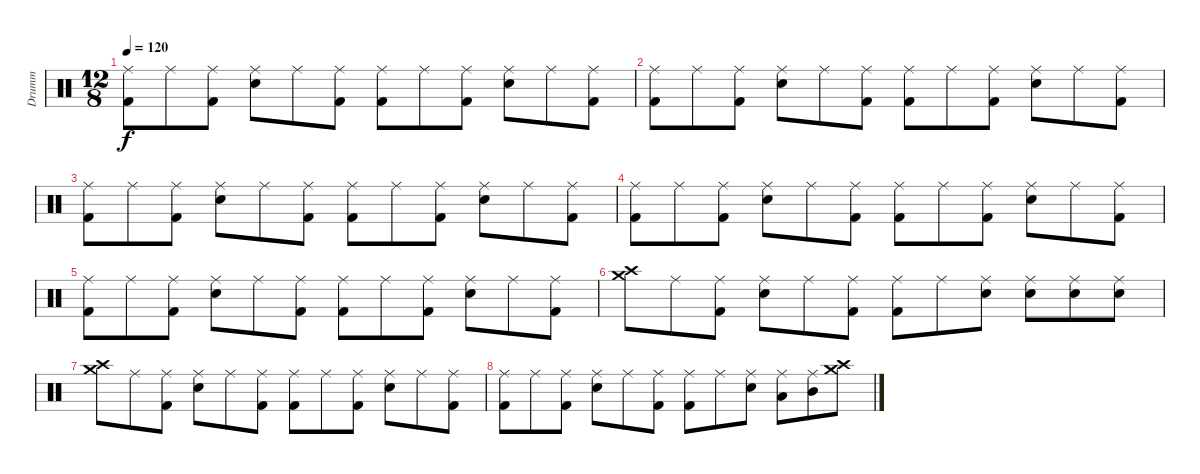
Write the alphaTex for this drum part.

\track ("Drumm" "Drumm") {instrument percussion}
\staff {score}
\articulation defaults
\ts (12 8)
\tempo 120
\clef neutral
\ks c
("Kick (hit) 2" "Ride (middle)").8{dy f} "Ride (middle)".8 ("Kick (hit) 2" "Ride (middle)").8 ("Electric Snare (hit)" "Ride (middle)").8 "Ride (middle)".8 ("Kick (hit) 2" "Ride (middle)").8 ("Kick (hit) 2" "Ride (middle)").8 "Ride (middle)".8 ("Kick (hit) 2" "Ride (middle)").8 ("Electric Snare (hit)" "Ride (middle)").8 "Ride (middle)".8 ("Kick (hit) 2" "Ride (middle)").8 |
("Kick (hit) 2" "Ride (middle)").8 "Ride (middle)".8 ("Kick (hit) 2" "Ride (middle)").8 ("Electric Snare (hit)" "Ride (middle)").8 "Ride (middle)".8 ("Kick (hit) 2" "Ride (middle)").8 ("Kick (hit) 2" "Ride (middle)").8 "Ride (middle)".8 ("Kick (hit) 2" "Ride (middle)").8 ("Electric Snare (hit)" "Ride (middle)").8 "Ride (middle)".8 ("Kick (hit) 2" "Ride (middle)").8 |
("Kick (hit) 2" "Ride (middle)").8 "Ride (middle)".8 ("Kick (hit) 2" "Ride (middle)").8 ("Electric Snare (hit)" "Ride (middle)").8 "Ride (middle)".8 ("Kick (hit) 2" "Ride (middle)").8 ("Kick (hit) 2" "Ride (middle)").8 "Ride (middle)".8 ("Kick (hit) 2" "Ride (middle)").8 ("Electric Snare (hit)" "Ride (middle)").8 "Ride (middle)".8 ("Kick (hit) 2" "Ride (middle)").8 |
("Kick (hit) 2" "Ride (middle)").8 "Ride (middle)".8 ("Kick (hit) 2" "Ride (middle)").8 ("Electric Snare (hit)" "Ride (middle)").8 "Ride (middle)".8 ("Kick (hit) 2" "Ride (middle)").8 ("Kick (hit) 2" "Ride (middle)").8 "Ride (middle)".8 ("Kick (hit) 2" "Ride (middle)").8 ("Electric Snare (hit)" "Ride (middle)").8 "Ride (middle)".8 ("Kick (hit) 2" "Ride (middle)").8 |
("Kick (hit) 2" "Ride (middle)").8 "Ride (middle)".8 ("Kick (hit) 2" "Ride (middle)").8 ("Electric Snare (hit)" "Ride (middle)").8 "Ride (middle)".8 ("Kick (hit) 2" "Ride (middle)").8 ("Kick (hit) 2" "Ride (middle)").8 "Ride (middle)".8 ("Kick (hit) 2" "Ride (middle)").8 ("Electric Snare (hit)" "Ride (middle)").8 "Ride (middle)".8 ("Kick (hit) 2" "Ride (middle)").8 |
("Crash high (hit)" "Crash medium (hit)").8 "Ride (middle)".8 ("Kick (hit) 2" "Ride (middle)").8 ("Electric Snare (hit)" "Ride (middle)").8 "Ride (middle)".8 ("Kick (hit) 2" "Ride (middle)").8 ("Kick (hit) 2" "Ride (middle)").8 "Ride (middle)".8 ("Electric Snare (hit)" "Ride (middle)").8 ("Electric Snare (hit)" "Ride (middle)").8 ("Electric Snare (hit)" "Ride (middle)").8 ("Electric Snare (hit)" "Ride (middle)").8 |
("Crash high (hit)" "Crash medium (hit)").8 "Ride (middle)".8 ("Kick (hit) 2" "Ride (middle)").8 ("Electric Snare (hit)" "Ride (middle)").8 "Ride (middle)".8 ("Kick (hit) 2" "Ride (middle)").8 ("Kick (hit) 2" "Ride (middle)").8 "Ride (middle)".8 ("Kick (hit) 2" "Ride (middle)").8 ("Electric Snare (hit)" "Ride (middle)").8 "Ride (middle)".8 ("Kick (hit) 2" "Ride (middle)").8 |
("Kick (hit) 2" "Ride (middle)").8 "Ride (middle)".8 ("Kick (hit) 2" "Ride (middle)").8 ("Electric Snare (hit)" "Ride (middle)").8 "Ride (middle)".8 ("Kick (hit) 2" "Ride (middle)").8 ("Kick (hit) 2" "Ride (middle)").8 "Ride (middle)".8 ("Electric Snare (hit)" "Ride (middle)").8 ("Low Floor Tom (hit)" "Ride (middle)").8 ("Mid Tom (hit)" "Ride (middle)").8 ("Crash medium (hit)" "Crash high (hit)").8
